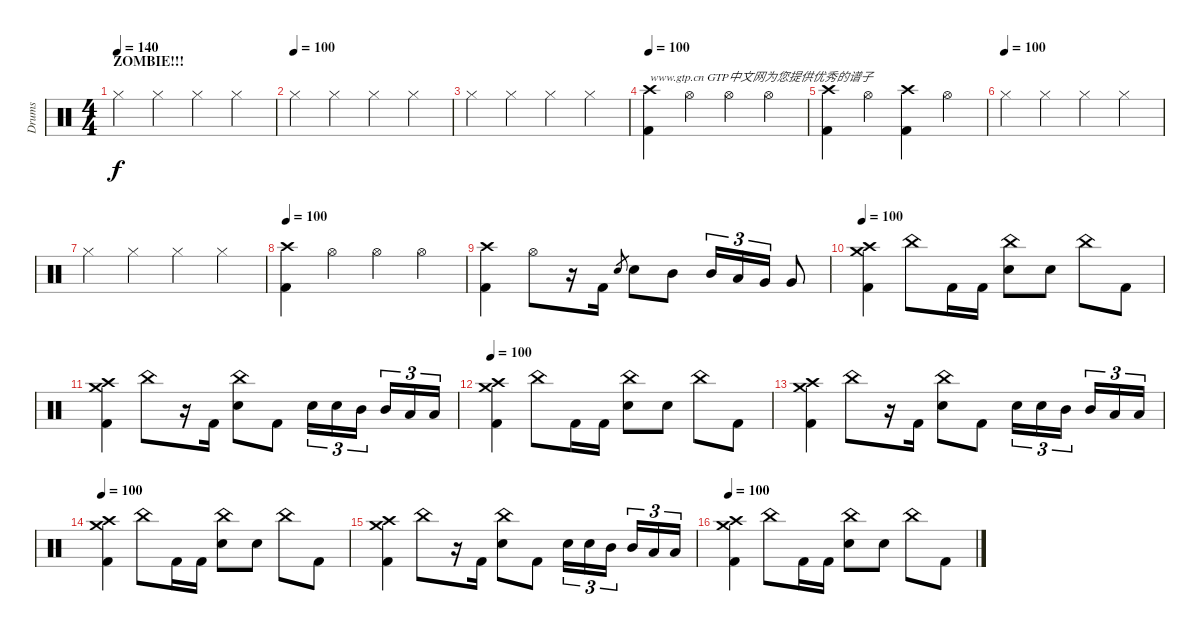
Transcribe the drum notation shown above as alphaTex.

\track ("Drums" "Drums") {instrument percussion}
\staff {score}
\articulation defaults
\ts (4 4)
\section ("" "ZOMBIE!!!")
\tempo 140
\tempo 100
\tempo 140
\clef neutral
\ks c "Hi-Hat (closed)".4{dy f} "Hi-Hat (closed)".4 "Hi-Hat (closed)".4 "Hi-Hat (closed)".4
|
\tempo (100)
"Hi-Hat (closed)".4 "Hi-Hat (closed)".4 "Hi-Hat (closed)".4 "Hi-Hat (closed)".4 |
"Hi-Hat (closed)".4 "Hi-Hat (closed)".4 "Hi-Hat (closed)".4 "Hi-Hat (closed)".4 |
\tempo 100
("Crash high (hit)" "Kick (hit) 2").4{txt "www.gtp.cn GTP中文网为您提供优秀的谱子"} "Hi-Hat (open)".4 "Hi-Hat (open)".4 "Hi-Hat (open)".4 |
("Crash high (hit)" "Kick (hit) 2").4 "Hi-Hat (open)".4 ("Crash high (hit)" "Kick (hit) 2").4 "Hi-Hat (open)".4 |
\tempo (100)
"Hi-Hat (closed)".4 "Hi-Hat (closed)".4 "Hi-Hat (closed)".4 "Hi-Hat (closed)".4 |
"Hi-Hat (closed)".4 "Hi-Hat (closed)".4 "Hi-Hat (closed)".4 "Hi-Hat (closed)".4 |
\tempo 100
("Crash high (hit)" "Kick (hit) 2").4 "Hi-Hat (open)".4 "Hi-Hat (open)".4 "Hi-Hat (open)".4 |
("Crash high (hit)" "Kick (hit) 2").4 "Hi-Hat (open)".8 r.16 "Kick (hit) 2".16 "Electric Snare (hit)".8{gr} "Electric Snare (hit)".8 "Mid Tom (hit)".8 "Mid Tom (hit)".16{tu (3 2)} "Low Tom (hit)".16{tu (3 2)} "Very Low Tom (hit)".16{tu (3 2)} "Very Low Tom (hit)".8 |
\tempo 100
("Crash high (hit)" "Crash medium (hit)" "Kick (hit) 2").4 "China (hit)".8 "Kick (hit) 2".16 "Kick (hit) 2".16 ("China (hit)" "Electric Snare (hit)").8 "Electric Snare (hit)".8 "China (hit)".8 "Kick (hit) 2".8 |
("Crash high (hit)" "Crash medium (hit)" "Kick (hit) 2").4 "China (hit)".8 r.16 "Kick (hit) 2".16 ("China (hit)" "Electric Snare (hit)").8 "Kick (hit) 2".8 "Electric Snare (hit)".16{tu (3 2)} "Electric Snare (hit)".16{tu (3 2)} "Mid Tom (hit)".16{tu (3 2)} "Mid Tom (hit)".16{tu (3 2)} "Low Tom (hit)".16{tu (3 2)} "Low Tom (hit)".16{tu (3 2)} |
\tempo 100
("Crash high (hit)" "Crash medium (hit)" "Kick (hit) 2").4 "China (hit)".8 "Kick (hit) 2".16 "Kick (hit) 2".16 ("China (hit)" "Electric Snare (hit)").8 "Electric Snare (hit)".8 "China (hit)".8 "Kick (hit) 2".8 |
("Crash high (hit)" "Crash medium (hit)" "Kick (hit) 2").4 "China (hit)".8 r.16 "Kick (hit) 2".16 ("China (hit)" "Electric Snare (hit)").8 "Kick (hit) 2".8 "Electric Snare (hit)".16{tu (3 2)} "Electric Snare (hit)".16{tu (3 2)} "Mid Tom (hit)".16{tu (3 2)} "Mid Tom (hit)".16{tu (3 2)} "Low Tom (hit)".16{tu (3 2)} "Low Tom (hit)".16{tu (3 2)} |
\tempo 100
("Crash high (hit)" "Crash medium (hit)" "Kick (hit) 2").4 "China (hit)".8 "Kick (hit) 2".16 "Kick (hit) 2".16 ("China (hit)" "Electric Snare (hit)").8 "Electric Snare (hit)".8 "China (hit)".8 "Kick (hit) 2".8 |
("Crash high (hit)" "Crash medium (hit)" "Kick (hit) 2").4 "China (hit)".8 r.16 "Kick (hit) 2".16 ("China (hit)" "Electric Snare (hit)").8 "Kick (hit) 2".8 "Electric Snare (hit)".16{tu (3 2)} "Electric Snare (hit)".16{tu (3 2)} "Mid Tom (hit)".16{tu (3 2)} "Mid Tom (hit)".16{tu (3 2)} "Low Tom (hit)".16{tu (3 2)} "Low Tom (hit)".16{tu (3 2)} |
\tempo 100
("Crash high (hit)" "Crash medium (hit)" "Kick (hit) 2").4 "China (hit)".8 "Kick (hit) 2".16 "Kick (hit) 2".16 ("China (hit)" "Electric Snare (hit)").8 "Electric Snare (hit)".8 "China (hit)".8 "Kick (hit) 2".8
